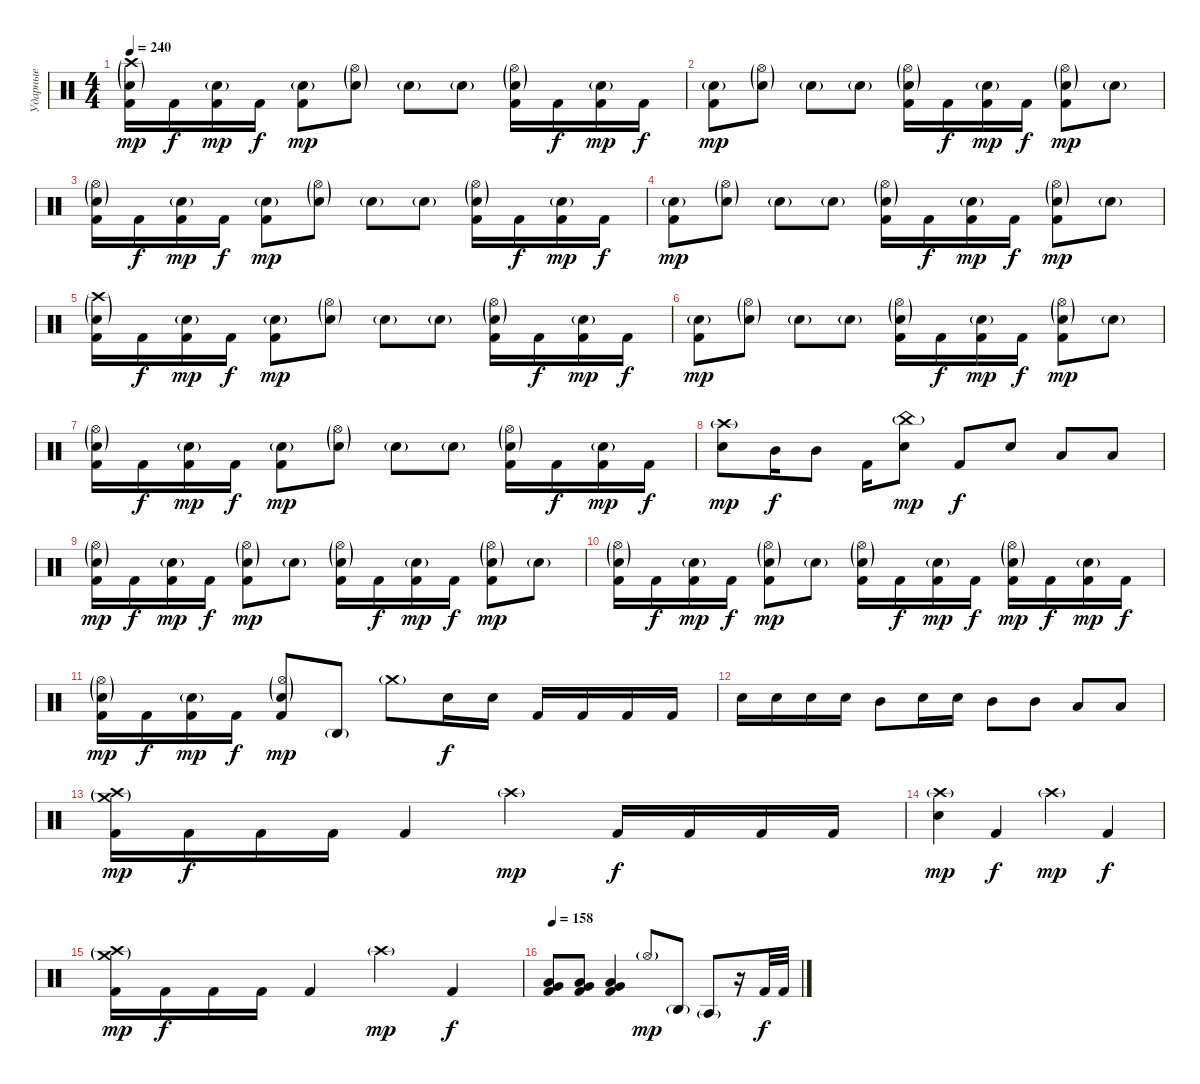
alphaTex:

\track ("Ударные" "Ударные") {instrument percussion}
\staff {score}
\articulation defaults
\ts (4 4)
\tempo 240
\clef neutral
\ks c
("Crash high (hit)"{g} "Electric Snare (hit)"{g} "Kick (hit) 2").16{dy mp} "Kick (hit) 2".16{dy f} ("Electric Snare (hit)"{g} "Kick (hit) 2").16{dy mp} "Kick (hit) 2".16{dy f} ("Electric Snare (hit)"{g} "Kick (hit) 2").8{dy mp} ("Hi-Hat (open)"{g} "Electric Snare (hit)"{g}).8 "Electric Snare (hit)"{g}.8 "Electric Snare (hit)"{g}.8 ("Hi-Hat (open)"{g} "Electric Snare (hit)"{g} "Kick (hit) 2").16 "Kick (hit) 2".16{dy f} ("Electric Snare (hit)"{g} "Kick (hit) 2").16{dy mp} "Kick (hit) 2".16{dy f} |
("Electric Snare (hit)"{g} "Kick (hit) 2").8{dy mp} ("Hi-Hat (open)"{g} "Electric Snare (hit)"{g}).8 "Electric Snare (hit)"{g}.8 "Electric Snare (hit)"{g}.8 ("Hi-Hat (open)"{g} "Electric Snare (hit)"{g} "Kick (hit) 2").16 "Kick (hit) 2".16{dy f} ("Electric Snare (hit)"{g} "Kick (hit) 2").16{dy mp} "Kick (hit) 2".16{dy f} ("Hi-Hat (open)"{g} "Electric Snare (hit)"{g} "Kick (hit) 2").8{dy mp} "Electric Snare (hit)"{g}.8 |
("Hi-Hat (open)"{g} "Electric Snare (hit)"{g} "Kick (hit) 2").16 "Kick (hit) 2".16{dy f} ("Electric Snare (hit)"{g} "Kick (hit) 2").16{dy mp} "Kick (hit) 2".16{dy f} ("Electric Snare (hit)"{g} "Kick (hit) 2").8{dy mp} ("Hi-Hat (open)"{g} "Electric Snare (hit)"{g}).8 "Electric Snare (hit)"{g}.8 "Electric Snare (hit)"{g}.8 ("Hi-Hat (open)"{g} "Electric Snare (hit)"{g} "Kick (hit) 2").16 "Kick (hit) 2".16{dy f} ("Electric Snare (hit)"{g} "Kick (hit) 2").16{dy mp} "Kick (hit) 2".16{dy f} |
("Electric Snare (hit)"{g} "Kick (hit) 2").8{dy mp} ("Hi-Hat (open)"{g} "Electric Snare (hit)"{g}).8 "Electric Snare (hit)"{g}.8 "Electric Snare (hit)"{g}.8 ("Hi-Hat (open)"{g} "Electric Snare (hit)"{g} "Kick (hit) 2").16 "Kick (hit) 2".16{dy f} ("Electric Snare (hit)"{g} "Kick (hit) 2").16{dy mp} "Kick (hit) 2".16{dy f} ("Hi-Hat (open)"{g} "Electric Snare (hit)"{g} "Kick (hit) 2").8{dy mp} "Electric Snare (hit)"{g}.8 |
("Crash high (hit)"{g} "Electric Snare (hit)"{g} "Kick (hit) 2").16 "Kick (hit) 2".16{dy f} ("Electric Snare (hit)"{g} "Kick (hit) 2").16{dy mp} "Kick (hit) 2".16{dy f} ("Electric Snare (hit)"{g} "Kick (hit) 2").8{dy mp} ("Hi-Hat (open)"{g} "Electric Snare (hit)"{g}).8 "Electric Snare (hit)"{g}.8 "Electric Snare (hit)"{g}.8 ("Hi-Hat (open)"{g} "Electric Snare (hit)"{g} "Kick (hit) 2").16 "Kick (hit) 2".16{dy f} ("Electric Snare (hit)"{g} "Kick (hit) 2").16{dy mp} "Kick (hit) 2".16{dy f} |
("Electric Snare (hit)"{g} "Kick (hit) 2").8{dy mp} ("Hi-Hat (open)"{g} "Electric Snare (hit)"{g}).8 "Electric Snare (hit)"{g}.8 "Electric Snare (hit)"{g}.8 ("Hi-Hat (open)"{g} "Electric Snare (hit)"{g} "Kick (hit) 2").16 "Kick (hit) 2".16{dy f} ("Electric Snare (hit)"{g} "Kick (hit) 2").16{dy mp} "Kick (hit) 2".16{dy f} ("Hi-Hat (open)"{g} "Electric Snare (hit)"{g} "Kick (hit) 2").8{dy mp} "Electric Snare (hit)"{g}.8 |
("Hi-Hat (open)"{g} "Electric Snare (hit)"{g} "Kick (hit) 2").16 "Kick (hit) 2".16{dy f} ("Electric Snare (hit)"{g} "Kick (hit) 2").16{dy mp} "Kick (hit) 2".16{dy f} ("Electric Snare (hit)"{g} "Kick (hit) 2").8{dy mp} ("Hi-Hat (open)"{g} "Electric Snare (hit)"{g}).8 "Electric Snare (hit)"{g}.8 "Electric Snare (hit)"{g}.8 ("Hi-Hat (open)"{g} "Electric Snare (hit)"{g} "Kick (hit) 2").16 "Kick (hit) 2".16{dy f} ("Electric Snare (hit)"{g} "Kick (hit) 2").16{dy mp} "Kick (hit) 2".16{dy f} |
("Crash high (hit)"{g} "Electric Snare (hit)").8{dy mp} "Mid Tom (hit)".16{dy f} "Mid Tom (hit)".8 "Kick (hit) 2".16 ("China (hit)"{g} "Electric Snare (hit)").8{dy mp} "Kick (hit) 2".8{dy f} "Electric Snare (hit)".8 "Low Tom (hit)".8 "Low Tom (hit)".8 |
("Hi-Hat (open)"{g} "Electric Snare (hit)"{g} "Kick (hit) 2").16{dy mp} "Kick (hit) 2".16{dy f} ("Electric Snare (hit)"{g} "Kick (hit) 2").16{dy mp} "Kick (hit) 2".16{dy f} ("Hi-Hat (open)"{g} "Electric Snare (hit)"{g} "Kick (hit) 2").8{dy mp} "Electric Snare (hit)"{g}.8 ("Hi-Hat (open)"{g} "Electric Snare (hit)"{g} "Kick (hit) 2").16 "Kick (hit) 2".16{dy f} ("Electric Snare (hit)"{g} "Kick (hit) 2").16{dy mp} "Kick (hit) 2".16{dy f} ("Hi-Hat (open)"{g} "Electric Snare (hit)"{g} "Kick (hit) 2").8{dy mp} "Electric Snare (hit)"{g}.8 |
("Hi-Hat (open)"{g} "Electric Snare (hit)"{g} "Kick (hit) 2").16 "Kick (hit) 2".16{dy f} ("Electric Snare (hit)"{g} "Kick (hit) 2").16{dy mp} "Kick (hit) 2".16{dy f} ("Hi-Hat (open)"{g} "Electric Snare (hit)"{g} "Kick (hit) 2").8{dy mp} "Electric Snare (hit)"{g}.8 ("Hi-Hat (open)"{g} "Electric Snare (hit)"{g} "Kick (hit) 2").16 "Kick (hit) 2".16{dy f} ("Electric Snare (hit)"{g} "Kick (hit) 2").16{dy mp} "Kick (hit) 2".16{dy f} ("Hi-Hat (open)"{g} "Electric Snare (hit)"{g} "Kick (hit) 2").16{dy mp} "Kick (hit) 2".16{dy f} ("Electric Snare (hit)"{g} "Kick (hit) 2").16{dy mp} "Kick (hit) 2".16{dy f} |
("Hi-Hat (open)"{g} "Electric Snare (hit)"{g} "Kick (hit) 2").16{dy mp} "Kick (hit) 2".16{dy f} ("Electric Snare (hit)"{g} "Kick (hit) 2").16{dy mp} "Kick (hit) 2".16{dy f} ("Hi-Hat (open)"{g} "Electric Snare (hit)"{g} "Kick (hit) 2").8{dy mp} "Agogo high (hit)"{g}.8 "Crash medium (hit)"{g}.8 "Electric Snare (hit)".16{dy f} "Electric Snare (hit)".16 "Kick (hit) 2".16 "Kick (hit) 2".16 "Kick (hit) 2".16 "Kick (hit) 2".16 |
"Electric Snare (hit)".16 "Electric Snare (hit)".16 "Electric Snare (hit)".16 "Electric Snare (hit)".16 "Mid Tom (hit)".8 "Electric Snare (hit)".16 "Electric Snare (hit)".16 "Mid Tom (hit)".8 "Mid Tom (hit)".8 "Low Tom (hit)".8 "Low Tom (hit)".8 |
("Crash high (hit)"{g} "Crash medium (hit)"{g} "Kick (hit) 2").16{dy mp} "Kick (hit) 2".16{dy f} "Kick (hit) 2".16 "Kick (hit) 2".16 "Kick (hit) 2".4 "Crash high (hit)"{g}.4{dy mp} "Kick (hit) 2".16{dy f} "Kick (hit) 2".16 "Kick (hit) 2".16 "Kick (hit) 2".16 |
("Crash high (hit)"{g} "Electric Snare (hit)").4{dy mp} "Kick (hit) 2".4{dy f} "Crash high (hit)"{g}.4{dy mp} "Kick (hit) 2".4{dy f} |
("Crash high (hit)"{g} "Crash medium (hit)"{g} "Kick (hit) 2").16{dy mp} "Kick (hit) 2".16{dy f} "Kick (hit) 2".16 "Kick (hit) 2".16 "Kick (hit) 2".4 "Crash high (hit)"{g}.4{dy mp} "Kick (hit) 2".4{dy f} |
\tempo 158
("Very Low Tom (hit)" "Low Tom (hit)" "Kick (hit) 2").8 ("Very Low Tom (hit)" "Low Tom (hit)" "Kick (hit) 2").8 ("Very Low Tom (hit)" "Low Tom (hit)" "Kick (hit) 2").4 "Hi-Hat (open)"{g}.8{dy mp} "Agogo high (hit)"{g}.8 "Agogo tow (hit)"{g}.8 r.16 "Kick (hit) 2".32{dy f} "Kick (hit) 2".32
